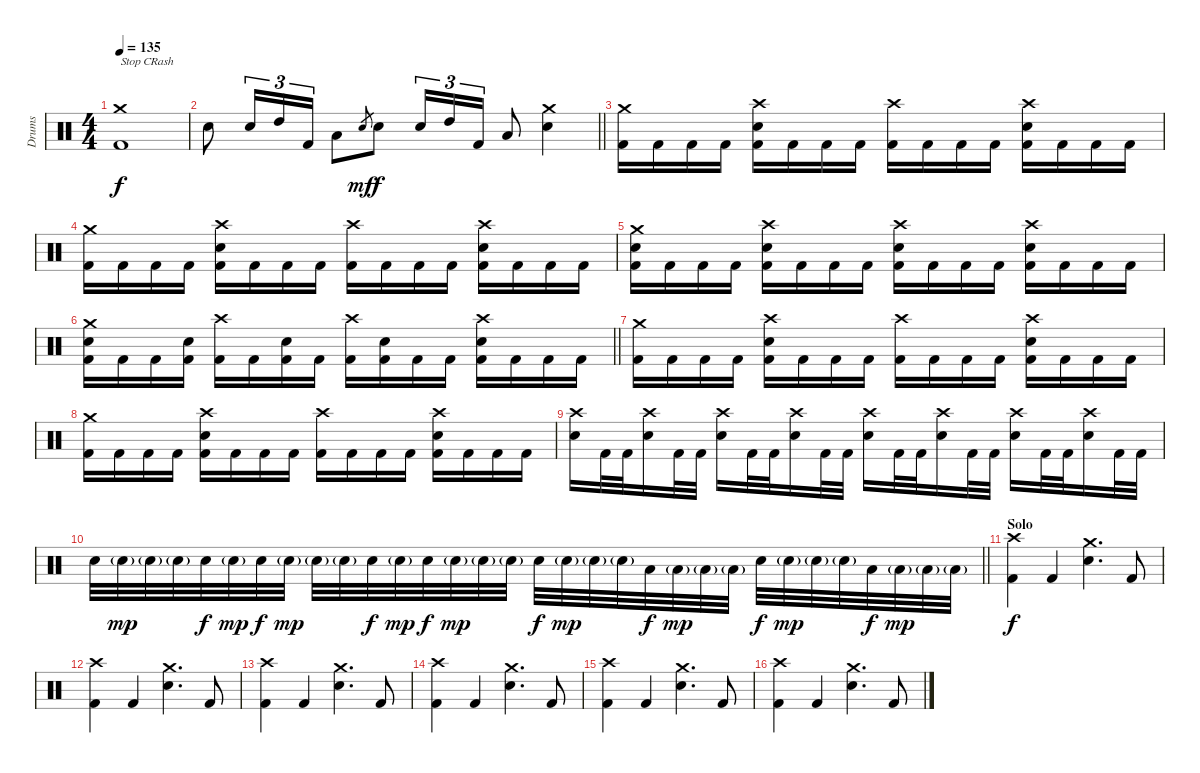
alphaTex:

\track ("Drums" "Drums") {instrument percussion}
\staff {score}
\articulation defaults
\ts (4 4)
\tempo 135
\clef neutral
\ks c
("Crash medium (hit)" "Kick (hit) 2").1{txt "Stop CRash" dy f} |
\barLineRight lightlight "Snare (hit) 2".8 "Snare (hit) 2".16{tu (3 2)} "High Tom (hit)".16{tu (3 2)} "Kick (hit) 2".16{tu (3 2)} "Low Floor Tom (hit)".8 "Snare (hit) 2".8{gr dy mf} "Snare (hit) 2".8{dy f} "Snare (hit) 2".16{tu (3 2)} "High Tom (hit)".16{tu (3 2)} "Kick (hit) 2".16{tu (3 2)} "Low Floor Tom (hit)".8
("Crash medium (hit)" "Snare (hit) 2").4 |
("Crash medium (hit)" "Kick (hit) 2").16 "Kick (hit) 2".16 "Kick (hit) 2".16 "Kick (hit) 2".16 ("Crash high (hit)" "Snare (hit) 2" "Kick (hit) 2").16 "Kick (hit) 2".16 "Kick (hit) 2".16 "Kick (hit) 2".16 ("Crash high (hit)" "Kick (hit) 2").16 "Kick (hit) 2".16 "Kick (hit) 2".16 "Kick (hit) 2".16 ("Crash high (hit)" "Snare (hit) 2" "Kick (hit) 2").16 "Kick (hit) 2".16 "Kick (hit) 2".16 "Kick (hit) 2".16 |
("Crash medium (hit)" "Kick (hit) 2").16 "Kick (hit) 2".16 "Kick (hit) 2".16 "Kick (hit) 2".16 ("Crash high (hit)" "Snare (hit) 2" "Kick (hit) 2").16 "Kick (hit) 2".16 "Kick (hit) 2".16 "Kick (hit) 2".16 ("Crash high (hit)" "Kick (hit) 2").16 "Kick (hit) 2".16 "Kick (hit) 2".16 "Kick (hit) 2".16 ("Crash high (hit)" "Snare (hit) 2" "Kick (hit) 2").16 "Kick (hit) 2".16 "Kick (hit) 2".16 "Kick (hit) 2".16 |
("Crash medium (hit)" "Snare (hit) 2" "Kick (hit) 2").16 "Kick (hit) 2".16 "Kick (hit) 2".16 "Kick (hit) 2".16 ("Crash high (hit)" "Snare (hit) 2" "Kick (hit) 2").16 "Kick (hit) 2".16 "Kick (hit) 2".16 "Kick (hit) 2".16 ("Crash high (hit)" "Snare (hit) 2" "Kick (hit) 2").16 "Kick (hit) 2".16 "Kick (hit) 2".16 "Kick (hit) 2".16 ("Crash high (hit)" "Snare (hit) 2" "Kick (hit) 2").16 "Kick (hit) 2".16 "Kick (hit) 2".16 "Kick (hit) 2".16 |
\barLineRight lightlight
("Crash medium (hit)" "Snare (hit) 2" "Kick (hit) 2").16 "Kick (hit) 2".16 "Kick (hit) 2".16 ("Snare (hit) 2" "Kick (hit) 2").16 ("Crash high (hit)" "Kick (hit) 2").16 "Kick (hit) 2".16 ("Snare (hit) 2" "Kick (hit) 2").16 "Kick (hit) 2".16 ("Crash high (hit)" "Kick (hit) 2").16 ("Snare (hit) 2" "Kick (hit) 2").16 "Kick (hit) 2".16 "Kick (hit) 2".16 ("Crash high (hit)" "Snare (hit) 2" "Kick (hit) 2").16 "Kick (hit) 2".16 "Kick (hit) 2".16 "Kick (hit) 2".16 |
("Crash medium (hit)" "Kick (hit) 2").16 "Kick (hit) 2".16 "Kick (hit) 2".16 "Kick (hit) 2".16 ("Crash high (hit)" "Snare (hit) 2" "Kick (hit) 2").16 "Kick (hit) 2".16 "Kick (hit) 2".16 "Kick (hit) 2".16 ("Crash high (hit)" "Kick (hit) 2").16 "Kick (hit) 2".16 "Kick (hit) 2".16 "Kick (hit) 2".16 ("Crash high (hit)" "Snare (hit) 2" "Kick (hit) 2").16 "Kick (hit) 2".16 "Kick (hit) 2".16 "Kick (hit) 2".16 |
("Crash medium (hit)" "Kick (hit) 2").16 "Kick (hit) 2".16 "Kick (hit) 2".16 "Kick (hit) 2".16 ("Crash high (hit)" "Snare (hit) 2" "Kick (hit) 2").16 "Kick (hit) 2".16 "Kick (hit) 2".16 "Kick (hit) 2".16 ("Crash high (hit)" "Kick (hit) 2").16 "Kick (hit) 2".16 "Kick (hit) 2".16 "Kick (hit) 2".16 ("Crash high (hit)" "Snare (hit) 2" "Kick (hit) 2").16 "Kick (hit) 2".16 "Kick (hit) 2".16 "Kick (hit) 2".16 |
("Crash high (hit)" "Snare (hit) 2").16 "Kick (hit) 2".32 "Kick (hit) 2".32 ("Crash high (hit)" "Snare (hit) 2").16 "Kick (hit) 2".32 "Kick (hit) 2".32 ("Crash high (hit)" "Snare (hit) 2").16 "Kick (hit) 2".32 "Kick (hit) 2".32 ("Crash high (hit)" "Snare (hit) 2").16 "Kick (hit) 2".32 "Kick (hit) 2".32 ("Crash high (hit)" "Snare (hit) 2").16 "Kick (hit) 2".32 "Kick (hit) 2".32 ("Crash high (hit)" "Snare (hit) 2").16 "Kick (hit) 2".32 "Kick (hit) 2".32 ("Crash high (hit)" "Snare (hit) 2").16 "Kick (hit) 2".32 "Kick (hit) 2".32 ("Crash high (hit)" "Snare (hit) 2").16 "Kick (hit) 2".32 "Kick (hit) 2".32 |
\barLineRight lightlight "Snare (hit) 2".32 "Snare (hit) 2"{g}.32{dy mp} "Snare (hit) 2"{g}.32 "Snare (hit) 2"{g}.32 "Snare (hit) 2".32{dy f} "Snare (hit) 2"{g}.32{dy mp} "Snare (hit) 2".32{dy f} "Snare (hit) 2"{g}.32{dy mp} "Snare (hit) 2"{g}.32 "Snare (hit) 2"{g}.32 "Snare (hit) 2".32{dy f} "Snare (hit) 2"{g}.32{dy mp} "Snare (hit) 2".32{dy f} "Snare (hit) 2"{g}.32{dy mp} "Snare (hit) 2"{g}.32 "Snare (hit) 2"{g}.32 "Snare (hit) 2".32{dy f} "Snare (hit) 2"{g}.32{dy mp} "Snare (hit) 2"{g}.32 "Snare (hit) 2"{g}.32 "Low Tom (hit)".32{dy f} "Low Tom (hit)"{g}.32{dy mp} "Low Tom (hit)"{g}.32 "Low Tom (hit)"{g}.32 "Snare (hit) 2".32{dy f} "Snare (hit) 2"{g}.32{dy mp} "Snare (hit) 2"{g}.32 "Snare (hit) 2"{g}.32 "Low Floor Tom (hit)".32{dy f} "Low Floor Tom (hit)"{g}.32{dy mp} "Low Floor Tom (hit)"{g}.32 "Low Floor Tom (hit)"{g}.32
|
\section ("" "Solo")
("Crash high (hit)" "Kick (hit) 2").4{dy f} "Kick (hit) 2".4 ("Crash medium (hit)" "Snare (hit) 2").4{d} "Kick (hit) 2".8 |
("Crash high (hit)" "Kick (hit) 2").4 "Kick (hit) 2".4 ("Crash medium (hit)" "Snare (hit) 2").4{d} "Kick (hit) 2".8 |
("Crash high (hit)" "Kick (hit) 2").4 "Kick (hit) 2".4 ("Crash medium (hit)" "Snare (hit) 2").4{d} "Kick (hit) 2".8 |
("Crash high (hit)" "Kick (hit) 2").4 "Kick (hit) 2".4 ("Crash medium (hit)" "Snare (hit) 2").4{d} "Kick (hit) 2".8 |
("Crash high (hit)" "Kick (hit) 2").4 "Kick (hit) 2".4 ("Crash medium (hit)" "Snare (hit) 2").4{d} "Kick (hit) 2".8 |
("Crash high (hit)" "Kick (hit) 2").4 "Kick (hit) 2".4 ("Crash medium (hit)" "Snare (hit) 2").4{d} "Kick (hit) 2".8
